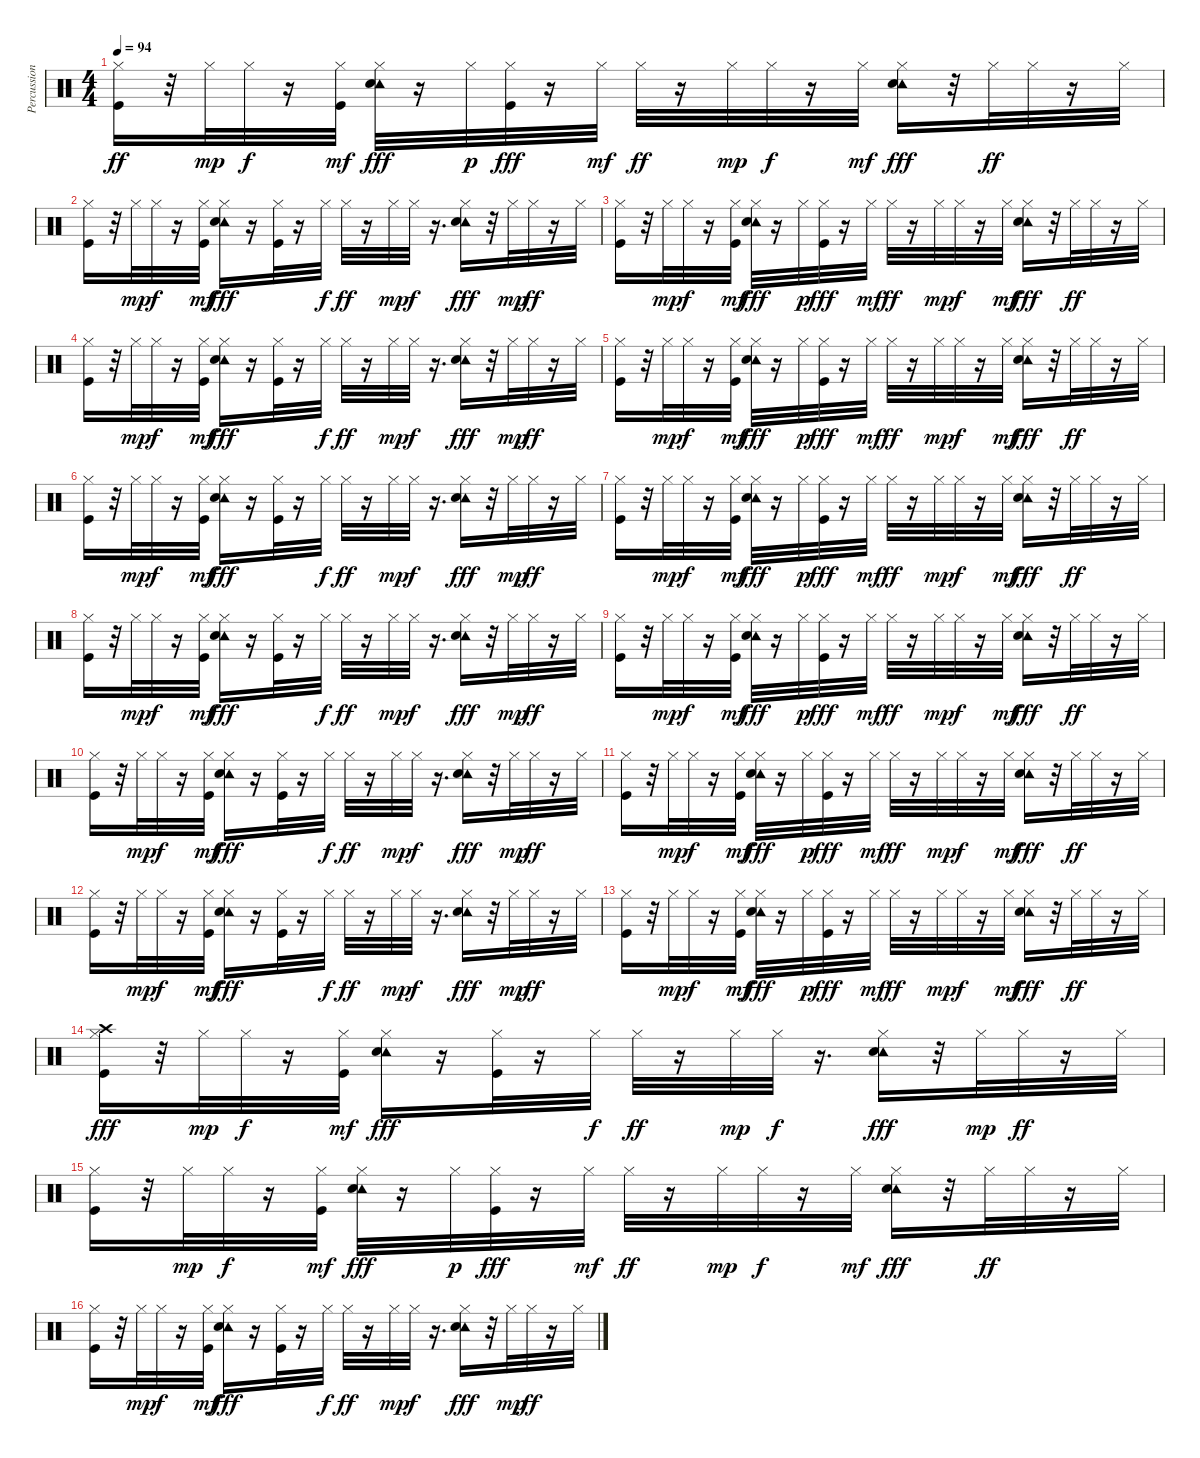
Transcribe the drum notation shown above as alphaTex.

\track ("Percussion" "Percussion") {instrument percussion}
\staff {score}
\articulation defaults
\ts (4 4)
\tempo 94
\clef neutral
\ks c
("Kick (hit)" "Hi-Hat (closed)").16{dy ff} r.32 "Hi-Hat (closed)".32{dy mp} "Hi-Hat (closed)".32{dy f} r.16 ("Kick (hit)" "Hi-Hat (closed)").32{dy mf} ("Hi-Hat (closed)" "Tambourine (hit)" "Snare (hit) 2").32{dy fff} r.16 "Hi-Hat (closed)".32{dy p} ("Kick (hit)" "Hi-Hat (closed)").32{dy fff} r.16 "Hi-Hat (closed)".32{dy mf} "Hi-Hat (closed)".32{dy ff} r.16 "Hi-Hat (closed)".32{dy mp} "Hi-Hat (closed)".32{dy f} r.16 "Hi-Hat (closed)".32{dy mf} ("Hi-Hat (closed)" "Tambourine (hit)" "Snare (hit) 2").16{dy fff} r.32 "Hi-Hat (closed)".32{dy ff} "Hi-Hat (closed)".32 r.16 "Hi-Hat (closed)".32 |
("Kick (hit)" "Hi-Hat (closed)").16 r.32 "Hi-Hat (closed)".32{dy mp} "Hi-Hat (closed)".32{dy f} r.16 ("Kick (hit)" "Hi-Hat (closed)").32{dy mf} ("Hi-Hat (closed)" "Tambourine (hit)" "Snare (hit) 2").16{dy fff} r.16 ("Kick (hit)" "Hi-Hat (closed)").32 r.16 "Hi-Hat (closed)".32{dy f} "Hi-Hat (closed)".32{dy ff} r.16 "Hi-Hat (closed)".32{dy mp} "Hi-Hat (closed)".32{dy f} r.16{d} ("Hi-Hat (closed)" "Tambourine (hit)" "Snare (hit) 2").16{dy fff} r.32 "Hi-Hat (closed)".32{dy mp} "Hi-Hat (closed)".32{dy ff} r.16 "Hi-Hat (closed)".32 |
("Kick (hit)" "Hi-Hat (closed)").16 r.32 "Hi-Hat (closed)".32{dy mp} "Hi-Hat (closed)".32{dy f} r.16 ("Kick (hit)" "Hi-Hat (closed)").32{dy mf} ("Hi-Hat (closed)" "Tambourine (hit)" "Snare (hit) 2").32{dy fff} r.16 "Hi-Hat (closed)".32{dy p} ("Kick (hit)" "Hi-Hat (closed)").32{dy fff} r.16 "Hi-Hat (closed)".32{dy mf} "Hi-Hat (closed)".32{dy ff} r.16 "Hi-Hat (closed)".32{dy mp} "Hi-Hat (closed)".32{dy f} r.16 "Hi-Hat (closed)".32{dy mf} ("Hi-Hat (closed)" "Tambourine (hit)" "Snare (hit) 2").16{dy fff} r.32 "Hi-Hat (closed)".32{dy ff} "Hi-Hat (closed)".32 r.16 "Hi-Hat (closed)".32 |
("Kick (hit)" "Hi-Hat (closed)").16 r.32 "Hi-Hat (closed)".32{dy mp} "Hi-Hat (closed)".32{dy f} r.16 ("Kick (hit)" "Hi-Hat (closed)").32{dy mf} ("Hi-Hat (closed)" "Tambourine (hit)" "Snare (hit) 2").16{dy fff} r.16 ("Kick (hit)" "Hi-Hat (closed)").32 r.16 "Hi-Hat (closed)".32{dy f} "Hi-Hat (closed)".32{dy ff} r.16 "Hi-Hat (closed)".32{dy mp} "Hi-Hat (closed)".32{dy f} r.16{d} ("Hi-Hat (closed)" "Tambourine (hit)" "Snare (hit) 2").16{dy fff} r.32 "Hi-Hat (closed)".32{dy mp} "Hi-Hat (closed)".32{dy ff} r.16 "Hi-Hat (closed)".32 |
("Kick (hit)" "Hi-Hat (closed)").16 r.32 "Hi-Hat (closed)".32{dy mp} "Hi-Hat (closed)".32{dy f} r.16 ("Kick (hit)" "Hi-Hat (closed)").32{dy mf} ("Hi-Hat (closed)" "Tambourine (hit)" "Snare (hit) 2").32{dy fff} r.16 "Hi-Hat (closed)".32{dy p} ("Kick (hit)" "Hi-Hat (closed)").32{dy fff} r.16 "Hi-Hat (closed)".32{dy mf} "Hi-Hat (closed)".32{dy ff} r.16 "Hi-Hat (closed)".32{dy mp} "Hi-Hat (closed)".32{dy f} r.16 "Hi-Hat (closed)".32{dy mf} ("Hi-Hat (closed)" "Tambourine (hit)" "Snare (hit) 2").16{dy fff} r.32 "Hi-Hat (closed)".32{dy ff} "Hi-Hat (closed)".32 r.16 "Hi-Hat (closed)".32 |
("Kick (hit)" "Hi-Hat (closed)").16 r.32 "Hi-Hat (closed)".32{dy mp} "Hi-Hat (closed)".32{dy f} r.16 ("Kick (hit)" "Hi-Hat (closed)").32{dy mf} ("Hi-Hat (closed)" "Tambourine (hit)" "Snare (hit) 2").16{dy fff} r.16 ("Kick (hit)" "Hi-Hat (closed)").32 r.16 "Hi-Hat (closed)".32{dy f} "Hi-Hat (closed)".32{dy ff} r.16 "Hi-Hat (closed)".32{dy mp} "Hi-Hat (closed)".32{dy f} r.16{d} ("Hi-Hat (closed)" "Tambourine (hit)" "Snare (hit) 2").16{dy fff} r.32 "Hi-Hat (closed)".32{dy mp} "Hi-Hat (closed)".32{dy ff} r.16 "Hi-Hat (closed)".32 |
("Kick (hit)" "Hi-Hat (closed)").16 r.32 "Hi-Hat (closed)".32{dy mp} "Hi-Hat (closed)".32{dy f} r.16 ("Kick (hit)" "Hi-Hat (closed)").32{dy mf} ("Hi-Hat (closed)" "Tambourine (hit)" "Snare (hit) 2").32{dy fff} r.16 "Hi-Hat (closed)".32{dy p} ("Kick (hit)" "Hi-Hat (closed)").32{dy fff} r.16 "Hi-Hat (closed)".32{dy mf} "Hi-Hat (closed)".32{dy ff} r.16 "Hi-Hat (closed)".32{dy mp} "Hi-Hat (closed)".32{dy f} r.16 "Hi-Hat (closed)".32{dy mf} ("Hi-Hat (closed)" "Tambourine (hit)" "Snare (hit) 2").16{dy fff} r.32 "Hi-Hat (closed)".32{dy ff} "Hi-Hat (closed)".32 r.16 "Hi-Hat (closed)".32 |
("Kick (hit)" "Hi-Hat (closed)").16 r.32 "Hi-Hat (closed)".32{dy mp} "Hi-Hat (closed)".32{dy f} r.16 ("Kick (hit)" "Hi-Hat (closed)").32{dy mf} ("Hi-Hat (closed)" "Tambourine (hit)" "Snare (hit) 2").16{dy fff} r.16 ("Kick (hit)" "Hi-Hat (closed)").32 r.16 "Hi-Hat (closed)".32{dy f} "Hi-Hat (closed)".32{dy ff} r.16 "Hi-Hat (closed)".32{dy mp} "Hi-Hat (closed)".32{dy f} r.16{d} ("Hi-Hat (closed)" "Tambourine (hit)" "Snare (hit) 2").16{dy fff} r.32 "Hi-Hat (closed)".32{dy mp} "Hi-Hat (closed)".32{dy ff} r.16 "Hi-Hat (closed)".32 |
("Kick (hit)" "Hi-Hat (closed)").16 r.32 "Hi-Hat (closed)".32{dy mp} "Hi-Hat (closed)".32{dy f} r.16 ("Kick (hit)" "Hi-Hat (closed)").32{dy mf} ("Hi-Hat (closed)" "Tambourine (hit)" "Snare (hit) 2").32{dy fff} r.16 "Hi-Hat (closed)".32{dy p} ("Kick (hit)" "Hi-Hat (closed)").32{dy fff} r.16 "Hi-Hat (closed)".32{dy mf} "Hi-Hat (closed)".32{dy ff} r.16 "Hi-Hat (closed)".32{dy mp} "Hi-Hat (closed)".32{dy f} r.16 "Hi-Hat (closed)".32{dy mf} ("Hi-Hat (closed)" "Tambourine (hit)" "Snare (hit) 2").16{dy fff} r.32 "Hi-Hat (closed)".32{dy ff} "Hi-Hat (closed)".32 r.16 "Hi-Hat (closed)".32 |
("Kick (hit)" "Hi-Hat (closed)").16 r.32 "Hi-Hat (closed)".32{dy mp} "Hi-Hat (closed)".32{dy f} r.16 ("Kick (hit)" "Hi-Hat (closed)").32{dy mf} ("Hi-Hat (closed)" "Tambourine (hit)" "Snare (hit) 2").16{dy fff} r.16 ("Kick (hit)" "Hi-Hat (closed)").32 r.16 "Hi-Hat (closed)".32{dy f} "Hi-Hat (closed)".32{dy ff} r.16 "Hi-Hat (closed)".32{dy mp} "Hi-Hat (closed)".32{dy f} r.16{d} ("Hi-Hat (closed)" "Tambourine (hit)" "Snare (hit) 2").16{dy fff} r.32 "Hi-Hat (closed)".32{dy mp} "Hi-Hat (closed)".32{dy ff} r.16 "Hi-Hat (closed)".32 |
("Kick (hit)" "Hi-Hat (closed)").16 r.32 "Hi-Hat (closed)".32{dy mp} "Hi-Hat (closed)".32{dy f} r.16 ("Kick (hit)" "Hi-Hat (closed)").32{dy mf} ("Hi-Hat (closed)" "Tambourine (hit)" "Snare (hit) 2").32{dy fff} r.16 "Hi-Hat (closed)".32{dy p} ("Kick (hit)" "Hi-Hat (closed)").32{dy fff} r.16 "Hi-Hat (closed)".32{dy mf} "Hi-Hat (closed)".32{dy ff} r.16 "Hi-Hat (closed)".32{dy mp} "Hi-Hat (closed)".32{dy f} r.16 "Hi-Hat (closed)".32{dy mf} ("Hi-Hat (closed)" "Tambourine (hit)" "Snare (hit) 2").16{dy fff} r.32 "Hi-Hat (closed)".32{dy ff} "Hi-Hat (closed)".32 r.16 "Hi-Hat (closed)".32 |
("Kick (hit)" "Hi-Hat (closed)").16 r.32 "Hi-Hat (closed)".32{dy mp} "Hi-Hat (closed)".32{dy f} r.16 ("Kick (hit)" "Hi-Hat (closed)").32{dy mf} ("Hi-Hat (closed)" "Tambourine (hit)" "Snare (hit) 2").16{dy fff} r.16 ("Kick (hit)" "Hi-Hat (closed)").32 r.16 "Hi-Hat (closed)".32{dy f} "Hi-Hat (closed)".32{dy ff} r.16 "Hi-Hat (closed)".32{dy mp} "Hi-Hat (closed)".32{dy f} r.16{d} ("Hi-Hat (closed)" "Tambourine (hit)" "Snare (hit) 2").16{dy fff} r.32 "Hi-Hat (closed)".32{dy mp} "Hi-Hat (closed)".32{dy ff} r.16 "Hi-Hat (closed)".32 |
("Kick (hit)" "Hi-Hat (closed)").16 r.32 "Hi-Hat (closed)".32{dy mp} "Hi-Hat (closed)".32{dy f} r.16 ("Kick (hit)" "Hi-Hat (closed)").32{dy mf} ("Hi-Hat (closed)" "Tambourine (hit)" "Snare (hit) 2").32{dy fff} r.16 "Hi-Hat (closed)".32{dy p} ("Kick (hit)" "Hi-Hat (closed)").32{dy fff} r.16 "Hi-Hat (closed)".32{dy mf} "Hi-Hat (closed)".32{dy ff} r.16 "Hi-Hat (closed)".32{dy mp} "Hi-Hat (closed)".32{dy f} r.16 "Hi-Hat (closed)".32{dy mf} ("Hi-Hat (closed)" "Tambourine (hit)" "Snare (hit) 2").16{dy fff} r.32 "Hi-Hat (closed)".32{dy ff} "Hi-Hat (closed)".32 r.16 "Hi-Hat (closed)".32 |
("Kick (hit)" "Hi-Hat (closed)" "Crash high (hit)").16{dy fff} r.32 "Hi-Hat (closed)".32{dy mp} "Hi-Hat (closed)".32{dy f} r.16 ("Kick (hit)" "Hi-Hat (closed)").32{dy mf} ("Hi-Hat (closed)" "Tambourine (hit)" "Snare (hit) 2").16{dy fff} r.16 ("Kick (hit)" "Hi-Hat (closed)").32 r.16 "Hi-Hat (closed)".32{dy f} "Hi-Hat (closed)".32{dy ff} r.16 "Hi-Hat (closed)".32{dy mp} "Hi-Hat (closed)".32{dy f} r.16{d} ("Hi-Hat (closed)" "Tambourine (hit)" "Snare (hit) 2").16{dy fff} r.32 "Hi-Hat (closed)".32{dy mp} "Hi-Hat (closed)".32{dy ff} r.16 "Hi-Hat (closed)".32 |
("Kick (hit)" "Hi-Hat (closed)").16 r.32 "Hi-Hat (closed)".32{dy mp} "Hi-Hat (closed)".32{dy f} r.16 ("Kick (hit)" "Hi-Hat (closed)").32{dy mf} ("Hi-Hat (closed)" "Tambourine (hit)" "Snare (hit) 2").32{dy fff} r.16 "Hi-Hat (closed)".32{dy p} ("Kick (hit)" "Hi-Hat (closed)").32{dy fff} r.16 "Hi-Hat (closed)".32{dy mf} "Hi-Hat (closed)".32{dy ff} r.16 "Hi-Hat (closed)".32{dy mp} "Hi-Hat (closed)".32{dy f} r.16 "Hi-Hat (closed)".32{dy mf} ("Hi-Hat (closed)" "Tambourine (hit)" "Snare (hit) 2").16{dy fff} r.32 "Hi-Hat (closed)".32{dy ff} "Hi-Hat (closed)".32 r.16 "Hi-Hat (closed)".32 |
("Kick (hit)" "Hi-Hat (closed)").16 r.32 "Hi-Hat (closed)".32{dy mp} "Hi-Hat (closed)".32{dy f} r.16 ("Kick (hit)" "Hi-Hat (closed)").32{dy mf} ("Hi-Hat (closed)" "Tambourine (hit)" "Snare (hit) 2").16{dy fff} r.16 ("Kick (hit)" "Hi-Hat (closed)").32 r.16 "Hi-Hat (closed)".32{dy f} "Hi-Hat (closed)".32{dy ff} r.16 "Hi-Hat (closed)".32{dy mp} "Hi-Hat (closed)".32{dy f} r.16{d} ("Hi-Hat (closed)" "Tambourine (hit)" "Snare (hit) 2").16{dy fff} r.32 "Hi-Hat (closed)".32{dy mp} "Hi-Hat (closed)".32{dy ff} r.16 "Hi-Hat (closed)".32
